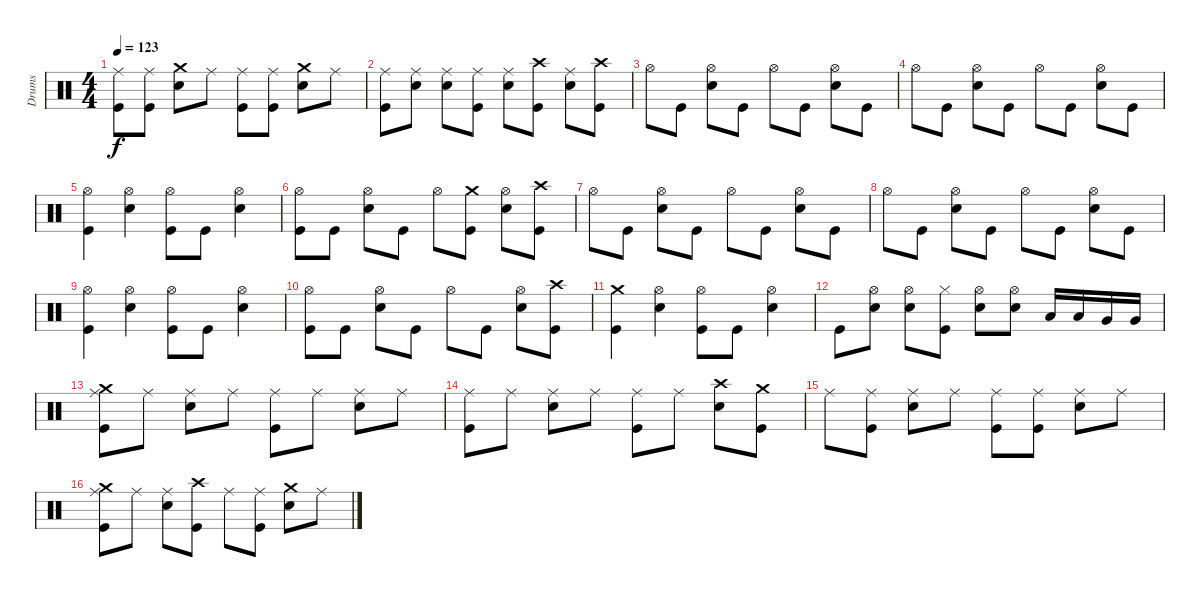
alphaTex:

\track ("Drums" "Drums") {instrument percussion}
\staff {score}
\articulation defaults
\ts (4 4)
\tempo 123
\clef neutral
\ks c
("Ride (middle)" "Kick (hit)").8{dy f} ("Ride (middle)" "Kick (hit)").8 ("Crash medium (hit)" "Snare (hit) 2").8 "Ride (middle)".8 ("Ride (middle)" "Kick (hit)").8 ("Ride (middle)" "Kick (hit)").8 ("Crash medium (hit)" "Snare (hit) 2").8 "Ride (middle)".8 |
("Ride (middle)" "Kick (hit)").8 ("Ride (middle)" "Snare (hit) 2").8 ("Ride (middle)" "Snare (hit) 2").8 ("Ride (middle)" "Kick (hit)").8 ("Ride (middle)" "Snare (hit) 2").8 ("Crash high (hit)" "Kick (hit)").8 ("Ride (middle)" "Snare (hit) 2").8 ("Crash high (hit)" "Kick (hit)").8 |
"Hi-Hat (open)".8 "Kick (hit)".8 ("Hi-Hat (open)" "Snare (hit) 2").8 "Kick (hit)".8 "Hi-Hat (open)".8 "Kick (hit)".8 ("Hi-Hat (open)" "Snare (hit) 2").8 "Kick (hit)".8 |
"Hi-Hat (open)".8 "Kick (hit)".8 ("Hi-Hat (open)" "Snare (hit) 2").8 "Kick (hit)".8 "Hi-Hat (open)".8 "Kick (hit)".8 ("Hi-Hat (open)" "Snare (hit) 2").8 "Kick (hit)".8 |
("Hi-Hat (open)" "Kick (hit)").4 ("Hi-Hat (open)" "Snare (hit) 2").4 ("Hi-Hat (open)" "Kick (hit)").8 "Kick (hit)".8 ("Hi-Hat (open)" "Snare (hit) 2").4 |
("Hi-Hat (open)" "Kick (hit)").8 "Kick (hit)".8 ("Hi-Hat (open)" "Snare (hit) 2").8 "Kick (hit)".8 "Hi-Hat (open)".8 ("Crash medium (hit)" "Kick (hit)").8 ("Hi-Hat (open)" "Snare (hit) 2").8 ("Crash high (hit)" "Kick (hit)").8 |
"Hi-Hat (open)".8 "Kick (hit)".8 ("Hi-Hat (open)" "Snare (hit) 2").8 "Kick (hit)".8 "Hi-Hat (open)".8 "Kick (hit)".8 ("Hi-Hat (open)" "Snare (hit) 2").8 "Kick (hit)".8 |
"Hi-Hat (open)".8 "Kick (hit)".8 ("Hi-Hat (open)" "Snare (hit) 2").8 "Kick (hit)".8 "Hi-Hat (open)".8 "Kick (hit)".8 ("Hi-Hat (open)" "Snare (hit) 2").8 "Kick (hit)".8 |
("Hi-Hat (open)" "Kick (hit)").4 ("Hi-Hat (open)" "Snare (hit) 2").4 ("Hi-Hat (open)" "Kick (hit)").8 "Kick (hit)".8 ("Hi-Hat (open)" "Snare (hit) 2").4 |
("Hi-Hat (open)" "Kick (hit)").8 "Kick (hit)".8 ("Hi-Hat (open)" "Snare (hit) 2").8 "Kick (hit)".8 "Hi-Hat (open)".8 "Kick (hit)".8 ("Hi-Hat (open)" "Snare (hit) 2").8 ("Crash high (hit)" "Kick (hit)").8 |
("Crash medium (hit)" "Kick (hit)").4 ("Hi-Hat (open)" "Snare (hit) 2").4 ("Hi-Hat (open)" "Kick (hit)").8 "Kick (hit)".8 ("Hi-Hat (open)" "Snare (hit) 2").4 |
"Kick (hit)".8 ("Hi-Hat (open)" "Snare (hit) 2").8 ("Hi-Hat (open)" "Snare (hit) 2").8 ("Hi-Hat (closed)" "Kick (hit)").8 ("Hi-Hat (open)" "Snare (hit) 2").8 ("Hi-Hat (open)" "Snare (hit) 2").8 "Low Tom (hit)".16 "Low Tom (hit)".16 "Very Low Tom (hit)".16 "Very Low Tom (hit)".16 |
("Crash medium (hit)" "Ride (middle)" "Kick (hit)").8 "Ride (middle)".8 ("Ride (middle)" "Snare (hit) 2").8 "Ride (middle)".8 ("Ride (middle)" "Kick (hit)").8 "Ride (middle)".8 ("Ride (middle)" "Snare (hit) 2").8 "Ride (middle)".8 |
("Ride (middle)" "Kick (hit)").8 "Ride (middle)".8 ("Ride (middle)" "Snare (hit) 2").8 "Ride (middle)".8 ("Ride (middle)" "Kick (hit)").8 "Ride (middle)".8 ("Crash high (hit)" "Snare (hit) 2").8 ("Crash medium (hit)" "Kick (hit)").8 |
"Ride (middle)".8 ("Ride (middle)" "Kick (hit)").8 ("Ride (middle)" "Snare (hit) 2").8 "Ride (middle)".8 ("Ride (middle)" "Kick (hit)").8 ("Ride (middle)" "Kick (hit)").8 ("Ride (middle)" "Snare (hit) 2").8 "Ride (middle)".8 |
("Crash medium (hit)" "Ride (middle)" "Kick (hit)").8 "Ride (middle)".8 ("Ride (middle)" "Snare (hit) 2").8 ("Crash high (hit)" "Kick (hit)").8 "Ride (middle)".8 ("Ride (middle)" "Kick (hit)").8 ("Crash medium (hit)" "Snare (hit) 2").8 "Ride (middle)".8
